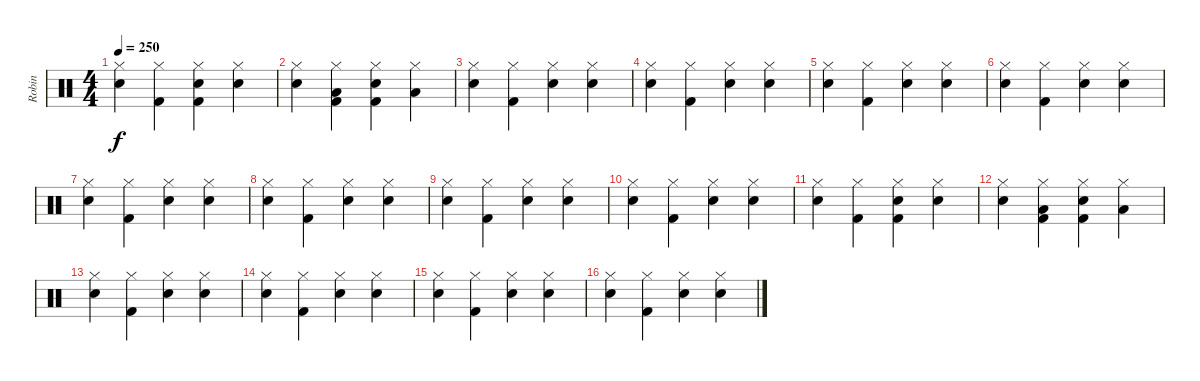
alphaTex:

\track ("Robin" "Robin") {instrument percussion}
\staff {score}
\articulation defaults
\ts (4 4)
\tempo 250
\clef neutral
\ks c
("Hi-Hat (closed)" "Snare (hit) 2").4{dy f} ("Hi-Hat (closed)" "Kick (hit) 2").4 ("Hi-Hat (closed)" "Kick (hit) 2" "Snare (hit) 2").4 ("Hi-Hat (closed)" "Snare (hit) 2").4 |
("Hi-Hat (closed)" "Snare (hit) 2").4 ("Hi-Hat (closed)" "Kick (hit) 2" "Low Floor Tom (hit)").4 ("Hi-Hat (closed)" "Kick (hit) 2" "Snare (hit) 2").4 ("Hi-Hat (closed)" "Low Floor Tom (hit)").4 |
("Hi-Hat (closed)" "Snare (hit) 2").4 ("Hi-Hat (closed)" "Kick (hit) 2").4 ("Hi-Hat (closed)" "Snare (hit) 2").4 ("Hi-Hat (closed)" "Snare (hit) 2").4 |
("Hi-Hat (closed)" "Snare (hit) 2").4 ("Hi-Hat (closed)" "Kick (hit) 2").4 ("Hi-Hat (closed)" "Snare (hit) 2").4 ("Hi-Hat (closed)" "Snare (hit) 2").4 |
("Hi-Hat (closed)" "Snare (hit) 2").4 ("Hi-Hat (closed)" "Kick (hit) 2").4 ("Hi-Hat (closed)" "Snare (hit) 2").4 ("Hi-Hat (closed)" "Snare (hit) 2").4 |
("Hi-Hat (closed)" "Snare (hit) 2").4 ("Hi-Hat (closed)" "Kick (hit) 2").4 ("Hi-Hat (closed)" "Snare (hit) 2").4 ("Hi-Hat (closed)" "Snare (hit) 2").4 |
("Hi-Hat (closed)" "Snare (hit) 2").4 ("Hi-Hat (closed)" "Kick (hit) 2").4 ("Hi-Hat (closed)" "Snare (hit) 2").4 ("Hi-Hat (closed)" "Snare (hit) 2").4 |
("Hi-Hat (closed)" "Snare (hit) 2").4 ("Hi-Hat (closed)" "Kick (hit) 2").4 ("Hi-Hat (closed)" "Snare (hit) 2").4 ("Hi-Hat (closed)" "Snare (hit) 2").4 |
("Hi-Hat (closed)" "Snare (hit) 2").4 ("Hi-Hat (closed)" "Kick (hit) 2").4 ("Hi-Hat (closed)" "Snare (hit) 2").4 ("Hi-Hat (closed)" "Snare (hit) 2").4 |
("Hi-Hat (closed)" "Snare (hit) 2").4 ("Hi-Hat (closed)" "Kick (hit) 2").4 ("Hi-Hat (closed)" "Snare (hit) 2").4 ("Hi-Hat (closed)" "Snare (hit) 2").4 |
("Hi-Hat (closed)" "Snare (hit) 2").4 ("Hi-Hat (closed)" "Kick (hit) 2").4 ("Hi-Hat (closed)" "Kick (hit) 2" "Snare (hit) 2").4 ("Hi-Hat (closed)" "Snare (hit) 2").4 |
("Hi-Hat (closed)" "Snare (hit) 2").4 ("Hi-Hat (closed)" "Kick (hit) 2" "Low Floor Tom (hit)").4 ("Hi-Hat (closed)" "Kick (hit) 2" "Snare (hit) 2").4 ("Hi-Hat (closed)" "Low Floor Tom (hit)").4 |
("Hi-Hat (closed)" "Snare (hit) 2").4 ("Hi-Hat (closed)" "Kick (hit) 2").4 ("Hi-Hat (closed)" "Snare (hit) 2").4 ("Hi-Hat (closed)" "Snare (hit) 2").4 |
("Hi-Hat (closed)" "Snare (hit) 2").4 ("Hi-Hat (closed)" "Kick (hit) 2").4 ("Hi-Hat (closed)" "Snare (hit) 2").4 ("Hi-Hat (closed)" "Snare (hit) 2").4 |
("Hi-Hat (closed)" "Snare (hit) 2").4 ("Hi-Hat (closed)" "Kick (hit) 2").4 ("Hi-Hat (closed)" "Snare (hit) 2").4 ("Hi-Hat (closed)" "Snare (hit) 2").4 |
("Hi-Hat (closed)" "Snare (hit) 2").4 ("Hi-Hat (closed)" "Kick (hit) 2").4 ("Hi-Hat (closed)" "Snare (hit) 2").4 ("Hi-Hat (closed)" "Snare (hit) 2").4
